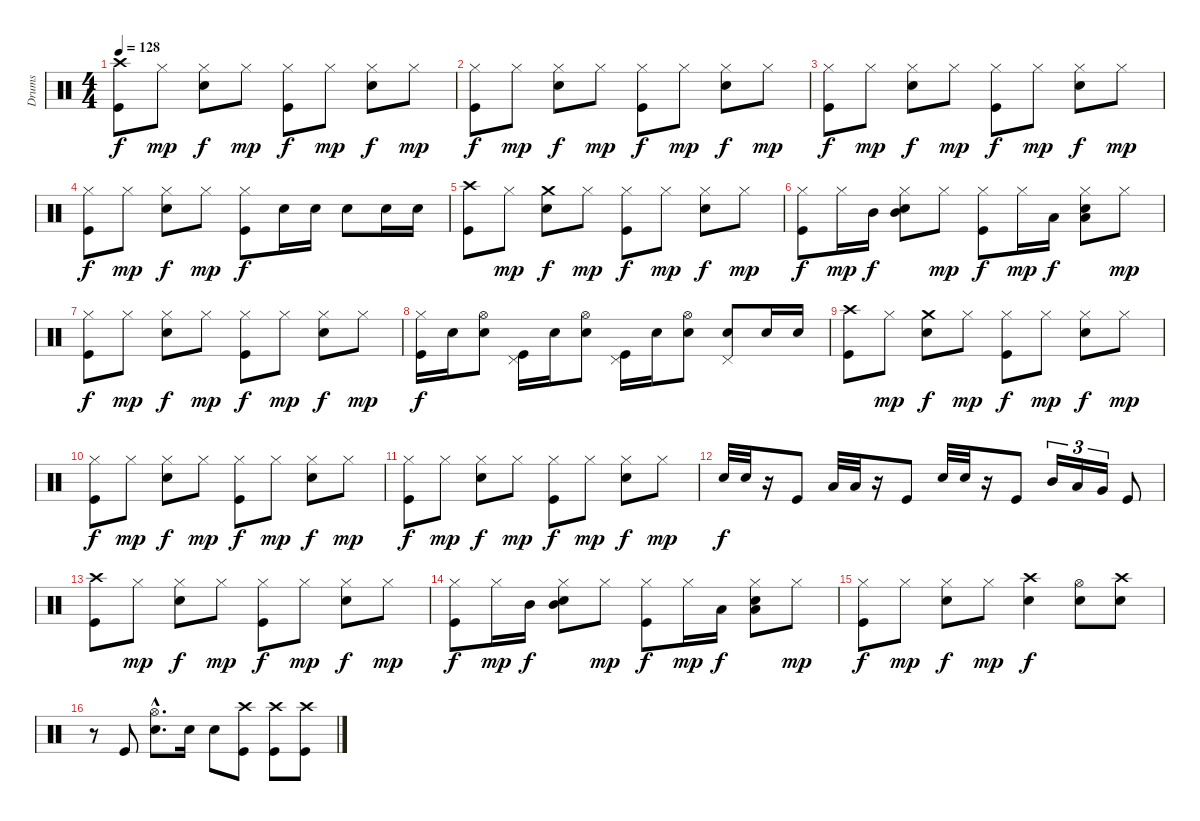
\track ("Drums" "Drums") {instrument percussion}
\staff {score}
\articulation defaults
\ts (4 4)
\tempo 128
\clef neutral
\ks c
("Crash high (hit)" "Kick (hit)").8{dy f} "Hi-Hat (closed)".8{dy mp} ("Hi-Hat (closed)" "Snare (hit) 2").8{dy f} "Hi-Hat (closed)".8{dy mp} ("Hi-Hat (closed)" "Kick (hit)").8{dy f} "Hi-Hat (closed)".8{dy mp} ("Hi-Hat (closed)" "Snare (hit) 2").8{dy f} "Hi-Hat (closed)".8{dy mp} |
("Hi-Hat (closed)" "Kick (hit)").8{dy f} "Hi-Hat (closed)".8{dy mp} ("Hi-Hat (closed)" "Snare (hit) 2").8{dy f} "Hi-Hat (closed)".8{dy mp} ("Hi-Hat (closed)" "Kick (hit)").8{dy f} "Hi-Hat (closed)".8{dy mp} ("Hi-Hat (closed)" "Snare (hit) 2").8{dy f} "Hi-Hat (closed)".8{dy mp} |
("Hi-Hat (closed)" "Kick (hit)").8{dy f} "Hi-Hat (closed)".8{dy mp} ("Hi-Hat (closed)" "Snare (hit) 2").8{dy f} "Hi-Hat (closed)".8{dy mp} ("Hi-Hat (closed)" "Kick (hit)").8{dy f} "Hi-Hat (closed)".8{dy mp} ("Hi-Hat (closed)" "Snare (hit) 2").8{dy f} "Hi-Hat (closed)".8{dy mp} |
("Hi-Hat (closed)" "Kick (hit)").8{dy f} "Hi-Hat (closed)".8{dy mp} ("Hi-Hat (closed)" "Snare (hit) 2").8{dy f} "Hi-Hat (closed)".8{dy mp} ("Hi-Hat (closed)" "Kick (hit)").8{dy f} "Snare (hit) 2".16 "Snare (hit) 2".16 "Snare (hit) 2".8 "Snare (hit) 2".16 "Snare (hit) 2".16 |
("Crash high (hit)" "Kick (hit)").8 "Hi-Hat (closed)".8{dy mp} ("Crash medium (hit)" "Snare (hit) 2").8{dy f} "Hi-Hat (closed)".8{dy mp} ("Hi-Hat (closed)" "Kick (hit)").8{dy f} "Hi-Hat (closed)".8{dy mp} ("Hi-Hat (closed)" "Snare (hit) 2").8{dy f} "Hi-Hat (closed)".8{dy mp} |
("Hi-Hat (closed)" "Kick (hit)").8{dy f} "Hi-Hat (closed)".16{dy mp} "Mid Tom (hit)".16{dy f} ("Hi-Hat (closed)" "Snare (hit) 2" "Mid Tom (hit)").8 "Hi-Hat (closed)".8{dy mp} ("Hi-Hat (closed)" "Kick (hit)").8{dy f} "Hi-Hat (closed)".16{dy mp} "Low Tom (hit)".16{dy f} ("Hi-Hat (closed)" "Snare (hit) 2" "Low Tom (hit)").8 "Hi-Hat (closed)".8{dy mp} |
("Hi-Hat (closed)" "Kick (hit)").8{dy f} "Hi-Hat (closed)".8{dy mp} ("Hi-Hat (closed)" "Snare (hit) 2").8{dy f} "Hi-Hat (closed)".8{dy mp} ("Hi-Hat (closed)" "Kick (hit)").8{dy f} "Hi-Hat (closed)".8{dy mp} ("Hi-Hat (closed)" "Snare (hit) 2").8{dy f} "Hi-Hat (closed)".8{dy mp} |
("Hi-Hat (closed)" "Kick (hit)").16{dy f} "Snare (hit) 2".16 ("Hi-Hat (open)" "Snare (hit) 2").8 ("Pedal Hi-Hat (hit)" "Kick (hit)").16 "Snare (hit) 2".16 ("Hi-Hat (open)" "Snare (hit) 2").8 ("Pedal Hi-Hat (hit)" "Kick (hit)").16 "Snare (hit) 2".16 ("Hi-Hat (open)" "Snare (hit) 2").8 ("Pedal Hi-Hat (hit)" "Snare (hit) 2").8 "Snare (hit) 2".16 "Snare (hit) 2".16 |
("Crash high (hit)" "Kick (hit)").8 "Hi-Hat (closed)".8{dy mp} ("Crash medium (hit)" "Snare (hit) 2").8{dy f} "Hi-Hat (closed)".8{dy mp} ("Hi-Hat (closed)" "Kick (hit)").8{dy f} "Hi-Hat (closed)".8{dy mp} ("Hi-Hat (closed)" "Snare (hit) 2").8{dy f} "Hi-Hat (closed)".8{dy mp} |
("Hi-Hat (closed)" "Kick (hit)").8{dy f} "Hi-Hat (closed)".8{dy mp} ("Hi-Hat (closed)" "Snare (hit) 2").8{dy f} "Hi-Hat (closed)".8{dy mp} ("Hi-Hat (closed)" "Kick (hit)").8{dy f} "Hi-Hat (closed)".8{dy mp} ("Hi-Hat (closed)" "Snare (hit) 2").8{dy f} "Hi-Hat (closed)".8{dy mp} |
("Hi-Hat (closed)" "Kick (hit)").8{dy f} "Hi-Hat (closed)".8{dy mp} ("Hi-Hat (closed)" "Snare (hit) 2").8{dy f} "Hi-Hat (closed)".8{dy mp} ("Hi-Hat (closed)" "Kick (hit)").8{dy f} "Hi-Hat (closed)".8{dy mp} ("Hi-Hat (closed)" "Snare (hit) 2").8{dy f} "Hi-Hat (closed)".8{dy mp} |
"Snare (hit) 2".32{dy f} "Snare (hit) 2".32 r.16 "Kick (hit)".8 "Low Tom (hit)".32 "Low Tom (hit)".32 r.16 "Kick (hit)".8 "Snare (hit) 2".32 "Snare (hit) 2".32 r.16 "Kick (hit)".8 "Mid Tom (hit)".16{tu (3 2)} "Low Tom (hit)".16{tu (3 2)} "Very Low Tom (hit)".16{tu (3 2)} "Kick (hit)".8 |
("Crash high (hit)" "Kick (hit)").8 "Hi-Hat (closed)".8{dy mp} ("Hi-Hat (closed)" "Snare (hit) 2").8{dy f} "Hi-Hat (closed)".8{dy mp} ("Hi-Hat (closed)" "Kick (hit)").8{dy f} "Hi-Hat (closed)".8{dy mp} ("Hi-Hat (closed)" "Snare (hit) 2").8{dy f} "Hi-Hat (closed)".8{dy mp} |
("Hi-Hat (closed)" "Kick (hit)").8{dy f} "Hi-Hat (closed)".16{dy mp} "Mid Tom (hit)".16{dy f} ("Hi-Hat (closed)" "Snare (hit) 2" "Mid Tom (hit)").8 "Hi-Hat (closed)".8{dy mp} ("Hi-Hat (closed)" "Kick (hit)").8{dy f} "Hi-Hat (closed)".16{dy mp} "Low Tom (hit)".16{dy f} ("Hi-Hat (closed)" "Snare (hit) 2" "Low Tom (hit)").8 "Hi-Hat (closed)".8{dy mp} |
("Hi-Hat (closed)" "Kick (hit)").8{dy f} "Hi-Hat (closed)".8{dy mp} ("Hi-Hat (closed)" "Snare (hit) 2").8{dy f} "Hi-Hat (closed)".8{dy mp} ("Crash high (hit)" "Snare (hit) 2").4{dy f} ("Hi-Hat (open)" "Snare (hit) 2").8 ("Crash high (hit)" "Snare (hit) 2").8 |
r.8 "Kick (hit)".8 ("Hi-Hat (open)"{hac} "Snare (hit) 2"{hac}).8{d} "Snare (hit) 2".16 "Snare (hit) 2".8 ("Crash high (hit)" "Kick (hit)").8 ("Crash high (hit)" "Kick (hit)").8 ("Crash high (hit)" "Kick (hit)").8
